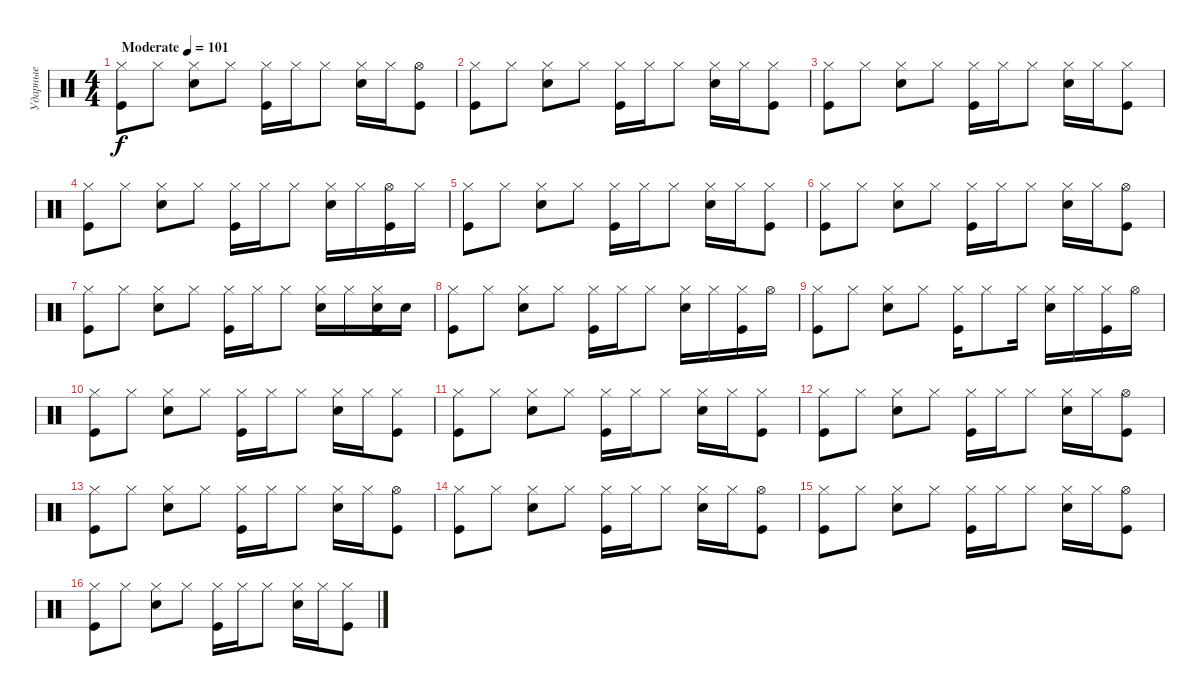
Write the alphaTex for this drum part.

\track ("Ударные" "Ударные") {instrument percussion}
\staff {score}
\articulation defaults
\ts (4 4)
\tempo (101 "Moderate")
\clef neutral
\ks c
("Hi-Hat (closed)" "Kick (hit)").8{dy f} "Hi-Hat (closed)".8 ("Hi-Hat (closed)" "Snare (hit) 2").8 "Hi-Hat (closed)".8 ("Hi-Hat (closed)" "Kick (hit)").16 "Hi-Hat (closed)".16 "Hi-Hat (closed)".8 ("Snare (hit) 2" "Hi-Hat (closed)").16 "Hi-Hat (closed)".16 ("Hi-Hat (open)" "Kick (hit)").8 |
("Hi-Hat (closed)" "Kick (hit)").8 "Hi-Hat (closed)".8 ("Hi-Hat (closed)" "Snare (hit) 2").8 "Hi-Hat (closed)".8 ("Hi-Hat (closed)" "Kick (hit)").16 "Hi-Hat (closed)".16 "Hi-Hat (closed)".8 ("Snare (hit) 2" "Hi-Hat (closed)").16 "Hi-Hat (closed)".16 ("Hi-Hat (closed)" "Kick (hit)").8 |
("Hi-Hat (closed)" "Kick (hit)").8 "Hi-Hat (closed)".8 ("Hi-Hat (closed)" "Snare (hit) 2").8 "Hi-Hat (closed)".8 ("Hi-Hat (closed)" "Kick (hit)").16 "Hi-Hat (closed)".16 "Hi-Hat (closed)".8 ("Snare (hit) 2" "Hi-Hat (closed)").16 "Hi-Hat (closed)".16 ("Hi-Hat (closed)" "Kick (hit)").8 |
("Hi-Hat (closed)" "Kick (hit)").8 "Hi-Hat (closed)".8 ("Hi-Hat (closed)" "Snare (hit) 2").8 "Hi-Hat (closed)".8 ("Hi-Hat (closed)" "Kick (hit)").16 "Hi-Hat (closed)".16 "Hi-Hat (closed)".8 ("Snare (hit) 2" "Hi-Hat (closed)").16 "Hi-Hat (closed)".16 ("Hi-Hat (open)" "Kick (hit)").16 "Hi-Hat (closed)".16 |
("Hi-Hat (closed)" "Kick (hit)").8 "Hi-Hat (closed)".8 ("Hi-Hat (closed)" "Snare (hit) 2").8 "Hi-Hat (closed)".8 ("Hi-Hat (closed)" "Kick (hit)").16 "Hi-Hat (closed)".16 "Hi-Hat (closed)".8 ("Snare (hit) 2" "Hi-Hat (closed)").16 "Hi-Hat (closed)".16 ("Hi-Hat (closed)" "Kick (hit)").8 |
("Hi-Hat (closed)" "Kick (hit)").8 "Hi-Hat (closed)".8 ("Hi-Hat (closed)" "Snare (hit) 2").8 "Hi-Hat (closed)".8 ("Hi-Hat (closed)" "Kick (hit)").16 "Hi-Hat (closed)".16 "Hi-Hat (closed)".8 ("Snare (hit) 2" "Hi-Hat (closed)").16 "Hi-Hat (closed)".16 ("Hi-Hat (open)" "Kick (hit)").8 |
("Hi-Hat (closed)" "Kick (hit)").8 "Hi-Hat (closed)".8 ("Hi-Hat (closed)" "Snare (hit) 2").8 "Hi-Hat (closed)".8 ("Hi-Hat (closed)" "Kick (hit)").16 "Hi-Hat (closed)".16 "Hi-Hat (closed)".8 ("Snare (hit) 2" "Hi-Hat (closed)").16 "Hi-Hat (closed)".16 ("Hi-Hat (closed)" "Snare (hit) 2" "Kick (hit)").16 "Snare (hit) 2".16 |
("Hi-Hat (closed)" "Kick (hit)").8 "Hi-Hat (closed)".8 ("Hi-Hat (closed)" "Snare (hit) 2").8 "Hi-Hat (closed)".8 ("Hi-Hat (closed)" "Kick (hit)").16 "Hi-Hat (closed)".16 "Hi-Hat (closed)".8 ("Snare (hit) 2" "Hi-Hat (closed)").16 "Hi-Hat (closed)".16 ("Hi-Hat (closed)" "Kick (hit)").16 "Hi-Hat (open)".16 |
("Hi-Hat (closed)" "Kick (hit)").8 "Hi-Hat (closed)".8 ("Hi-Hat (closed)" "Snare (hit) 2").8 "Hi-Hat (closed)".8 ("Hi-Hat (closed)" "Kick (hit)").16 "Hi-Hat (closed)".8 "Hi-Hat (closed)".16 ("Snare (hit) 2" "Hi-Hat (closed)").16 "Hi-Hat (closed)".16 ("Hi-Hat (closed)" "Kick (hit)").16 "Hi-Hat (open)".16 |
("Hi-Hat (closed)" "Kick (hit)").8 "Hi-Hat (closed)".8 ("Hi-Hat (closed)" "Snare (hit) 2").8 "Hi-Hat (closed)".8 ("Hi-Hat (closed)" "Kick (hit)").16 "Hi-Hat (closed)".16 "Hi-Hat (closed)".8 ("Snare (hit) 2" "Hi-Hat (closed)").16 "Hi-Hat (closed)".16 ("Hi-Hat (closed)" "Kick (hit)").8 |
("Hi-Hat (closed)" "Kick (hit)").8 "Hi-Hat (closed)".8 ("Hi-Hat (closed)" "Snare (hit) 2").8 "Hi-Hat (closed)".8 ("Hi-Hat (closed)" "Kick (hit)").16 "Hi-Hat (closed)".16 "Hi-Hat (closed)".8 ("Snare (hit) 2" "Hi-Hat (closed)").16 "Hi-Hat (closed)".16 ("Hi-Hat (closed)" "Kick (hit)").8 |
("Hi-Hat (closed)" "Kick (hit)").8 "Hi-Hat (closed)".8 ("Hi-Hat (closed)" "Snare (hit) 2").8 "Hi-Hat (closed)".8 ("Hi-Hat (closed)" "Kick (hit)").16 "Hi-Hat (closed)".16 "Hi-Hat (closed)".8 ("Snare (hit) 2" "Hi-Hat (closed)").16 "Hi-Hat (closed)".16 ("Hi-Hat (open)" "Kick (hit)").8 |
("Hi-Hat (closed)" "Kick (hit)").8 "Hi-Hat (closed)".8 ("Hi-Hat (closed)" "Snare (hit) 2").8 "Hi-Hat (closed)".8 ("Hi-Hat (closed)" "Kick (hit)").16 "Hi-Hat (closed)".16 "Hi-Hat (closed)".8 ("Snare (hit) 2" "Hi-Hat (closed)").16 "Hi-Hat (closed)".16 ("Hi-Hat (open)" "Kick (hit)").8 |
("Hi-Hat (closed)" "Kick (hit)").8 "Hi-Hat (closed)".8 ("Hi-Hat (closed)" "Snare (hit) 2").8 "Hi-Hat (closed)".8 ("Hi-Hat (closed)" "Kick (hit)").16 "Hi-Hat (closed)".16 "Hi-Hat (closed)".8 ("Snare (hit) 2" "Hi-Hat (closed)").16 "Hi-Hat (closed)".16 ("Hi-Hat (open)" "Kick (hit)").8 |
("Hi-Hat (closed)" "Kick (hit)").8 "Hi-Hat (closed)".8 ("Hi-Hat (closed)" "Snare (hit) 2").8 "Hi-Hat (closed)".8 ("Hi-Hat (closed)" "Kick (hit)").16 "Hi-Hat (closed)".16 "Hi-Hat (closed)".8 ("Snare (hit) 2" "Hi-Hat (closed)").16 "Hi-Hat (closed)".16 ("Hi-Hat (open)" "Kick (hit)").8 |
("Hi-Hat (closed)" "Kick (hit)").8 "Hi-Hat (closed)".8 ("Hi-Hat (closed)" "Snare (hit) 2").8 "Hi-Hat (closed)".8 ("Hi-Hat (closed)" "Kick (hit)").16 "Hi-Hat (closed)".16 "Hi-Hat (closed)".8 ("Snare (hit) 2" "Hi-Hat (closed)").16 "Hi-Hat (closed)".16 ("Hi-Hat (closed)" "Kick (hit)").8
